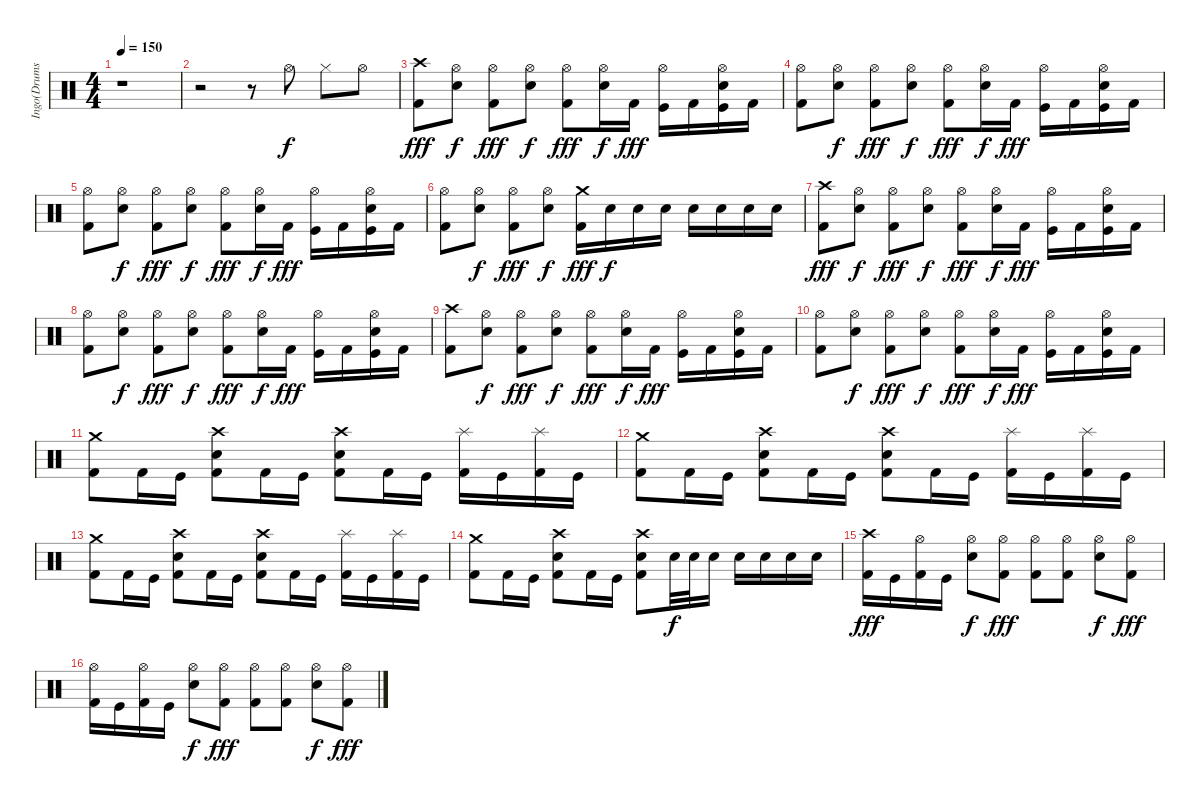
\track ("Ingo(Drums)" "Ingo(Drums") {instrument percussion}
\staff {score}
\articulation defaults
\ts (4 4)
\tempo 150
\clef neutral
\ks c
r.1{dy f} |
r.2 r.8 "Hi-Hat (open)".8 "Hi-Hat (closed)".8 "Hi-Hat (open)".8 |
("Crash high (hit)" "Kick (hit) 2").8{dy fff} ("Hi-Hat (open)" "Electric Snare (hit)").8{dy f} ("Hi-Hat (open)" "Kick (hit) 2").8{dy fff} ("Hi-Hat (open)" "Electric Snare (hit)").8{dy f} ("Hi-Hat (open)" "Kick (hit) 2").8{dy fff} ("Hi-Hat (open)" "Electric Snare (hit)").16{dy f} "Kick (hit) 2".16{dy fff} ("Hi-Hat (open)" "Kick (hit)").16 "Kick (hit) 2".16 ("Hi-Hat (open)" "Electric Snare (hit)" "Kick (hit)").16 "Kick (hit) 2".16 |
("Hi-Hat (open)" "Kick (hit) 2").8 ("Hi-Hat (open)" "Electric Snare (hit)").8{dy f} ("Hi-Hat (open)" "Kick (hit) 2").8{dy fff} ("Hi-Hat (open)" "Electric Snare (hit)").8{dy f} ("Hi-Hat (open)" "Kick (hit) 2").8{dy fff} ("Hi-Hat (open)" "Electric Snare (hit)").16{dy f} "Kick (hit) 2".16{dy fff} ("Hi-Hat (open)" "Kick (hit)").16 "Kick (hit) 2".16 ("Hi-Hat (open)" "Electric Snare (hit)" "Kick (hit)").16 "Kick (hit) 2".16 |
("Hi-Hat (open)" "Kick (hit) 2").8 ("Hi-Hat (open)" "Electric Snare (hit)").8{dy f} ("Hi-Hat (open)" "Kick (hit) 2").8{dy fff} ("Hi-Hat (open)" "Electric Snare (hit)").8{dy f} ("Hi-Hat (open)" "Kick (hit) 2").8{dy fff} ("Hi-Hat (open)" "Electric Snare (hit)").16{dy f} "Kick (hit) 2".16{dy fff} ("Hi-Hat (open)" "Kick (hit)").16 "Kick (hit) 2".16 ("Hi-Hat (open)" "Electric Snare (hit)" "Kick (hit)").16 "Kick (hit) 2".16 |
("Hi-Hat (open)" "Kick (hit) 2").8 ("Hi-Hat (open)" "Electric Snare (hit)").8{dy f} ("Hi-Hat (open)" "Kick (hit) 2").8{dy fff} ("Hi-Hat (open)" "Electric Snare (hit)").8{dy f} ("Crash medium (hit)" "Kick (hit) 2").16{dy fff} "Electric Snare (hit)".16{dy f} "Electric Snare (hit)".16 "Electric Snare (hit)".16 "Electric Snare (hit)".16 "Electric Snare (hit)".16 "Electric Snare (hit)".16 "Electric Snare (hit)".16 |
("Crash high (hit)" "Kick (hit) 2").8{dy fff} ("Hi-Hat (open)" "Electric Snare (hit)").8{dy f} ("Hi-Hat (open)" "Kick (hit) 2").8{dy fff} ("Hi-Hat (open)" "Electric Snare (hit)").8{dy f} ("Hi-Hat (open)" "Kick (hit) 2").8{dy fff} ("Hi-Hat (open)" "Electric Snare (hit)").16{dy f} "Kick (hit) 2".16{dy fff} ("Hi-Hat (open)" "Kick (hit)").16 "Kick (hit) 2".16 ("Hi-Hat (open)" "Electric Snare (hit)" "Kick (hit)").16 "Kick (hit) 2".16 |
("Hi-Hat (open)" "Kick (hit) 2").8 ("Hi-Hat (open)" "Electric Snare (hit)").8{dy f} ("Hi-Hat (open)" "Kick (hit) 2").8{dy fff} ("Hi-Hat (open)" "Electric Snare (hit)").8{dy f} ("Hi-Hat (open)" "Kick (hit) 2").8{dy fff} ("Hi-Hat (open)" "Electric Snare (hit)").16{dy f} "Kick (hit) 2".16{dy fff} ("Hi-Hat (open)" "Kick (hit)").16 "Kick (hit) 2".16 ("Hi-Hat (open)" "Electric Snare (hit)" "Kick (hit)").16 "Kick (hit) 2".16 |
("Crash high (hit)" "Kick (hit) 2").8 ("Hi-Hat (open)" "Electric Snare (hit)").8{dy f} ("Hi-Hat (open)" "Kick (hit) 2").8{dy fff} ("Hi-Hat (open)" "Electric Snare (hit)").8{dy f} ("Hi-Hat (open)" "Kick (hit) 2").8{dy fff} ("Hi-Hat (open)" "Electric Snare (hit)").16{dy f} "Kick (hit) 2".16{dy fff} ("Hi-Hat (open)" "Kick (hit)").16 "Kick (hit) 2".16 ("Hi-Hat (open)" "Electric Snare (hit)" "Kick (hit)").16 "Kick (hit) 2".16 |
("Hi-Hat (open)" "Kick (hit) 2").8 ("Hi-Hat (open)" "Electric Snare (hit)").8{dy f} ("Hi-Hat (open)" "Kick (hit) 2").8{dy fff} ("Hi-Hat (open)" "Electric Snare (hit)").8{dy f} ("Hi-Hat (open)" "Kick (hit) 2").8{dy fff} ("Hi-Hat (open)" "Electric Snare (hit)").16{dy f} "Kick (hit) 2".16{dy fff} ("Hi-Hat (open)" "Kick (hit)").16 "Kick (hit) 2".16 ("Hi-Hat (open)" "Electric Snare (hit)" "Kick (hit)").16 "Kick (hit) 2".16 |
("Crash medium (hit)" "Kick (hit) 2").8 "Kick (hit) 2".16 "Kick (hit)".16 ("Crash high (hit)" "Electric Snare (hit)" "Kick (hit) 2").8 "Kick (hit) 2".16 "Kick (hit)".16 ("Crash high (hit)" "Electric Snare (hit)" "Kick (hit) 2").8 "Kick (hit) 2".16 "Kick (hit)".16 ("Splash (hit)" "Kick (hit) 2").16 "Kick (hit)".16 ("Splash (hit)" "Kick (hit) 2").16 "Kick (hit)".16 |
("Crash medium (hit)" "Kick (hit) 2").8 "Kick (hit) 2".16 "Kick (hit)".16 ("Crash high (hit)" "Electric Snare (hit)" "Kick (hit) 2").8 "Kick (hit) 2".16 "Kick (hit)".16 ("Crash high (hit)" "Electric Snare (hit)" "Kick (hit) 2").8 "Kick (hit) 2".16 "Kick (hit)".16 ("Splash (hit)" "Kick (hit) 2").16 "Kick (hit)".16 ("Splash (hit)" "Kick (hit) 2").16 "Kick (hit)".16 |
("Crash medium (hit)" "Kick (hit) 2").8 "Kick (hit) 2".16 "Kick (hit)".16 ("Crash high (hit)" "Electric Snare (hit)" "Kick (hit) 2").8 "Kick (hit) 2".16 "Kick (hit)".16 ("Crash high (hit)" "Electric Snare (hit)" "Kick (hit) 2").8 "Kick (hit) 2".16 "Kick (hit)".16 ("Splash (hit)" "Kick (hit) 2").16 "Kick (hit)".16 ("Splash (hit)" "Kick (hit) 2").16 "Kick (hit)".16 |
("Crash medium (hit)" "Kick (hit) 2").8 "Kick (hit) 2".16 "Kick (hit)".16 ("Crash high (hit)" "Electric Snare (hit)" "Kick (hit) 2").8 "Kick (hit) 2".16 "Kick (hit)".16 ("Crash high (hit)" "Electric Snare (hit)" "Kick (hit) 2").8 "Electric Snare (hit)".32{dy f} "Electric Snare (hit)".32 "Electric Snare (hit)".16 "Electric Snare (hit)".16 "Electric Snare (hit)".16 "Electric Snare (hit)".16 "Electric Snare (hit)".16 |
("Crash high (hit)" "Kick (hit) 2").16{dy fff} "Kick (hit)".16 ("Hi-Hat (open)" "Kick (hit) 2").16 "Kick (hit)".16 ("Hi-Hat (open)" "Electric Snare (hit)").8{dy f} ("Hi-Hat (open)" "Kick (hit) 2").8{dy fff} ("Hi-Hat (open)" "Kick (hit) 2").8 ("Hi-Hat (open)" "Kick (hit) 2").8 ("Hi-Hat (open)" "Electric Snare (hit)").8{dy f} ("Hi-Hat (open)" "Kick (hit) 2").8{dy fff} |
("Hi-Hat (open)" "Kick (hit) 2").16 "Kick (hit)".16 ("Hi-Hat (open)" "Kick (hit) 2").16 "Kick (hit)".16 ("Hi-Hat (open)" "Electric Snare (hit)").8{dy f} ("Hi-Hat (open)" "Kick (hit) 2").8{dy fff} ("Hi-Hat (open)" "Kick (hit) 2").8 ("Hi-Hat (open)" "Kick (hit) 2").8 ("Hi-Hat (open)" "Electric Snare (hit)").8{dy f} ("Hi-Hat (open)" "Kick (hit) 2").8{dy fff}
